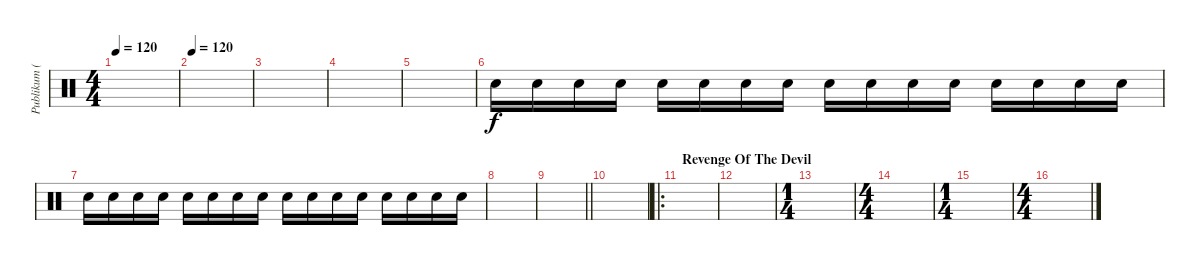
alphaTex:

\track ("Publikum (klapper)" "Publikum (") {instrument percussion}
\staff {score}
\articulation defaults
\ts (4 4)
\tempo 120
\clef neutral
\ks c
|
\tempo 120
|
|
|
|
"Hand Clap (hit)".16 "Hand Clap (hit)".16 "Hand Clap (hit)".16 "Hand Clap (hit)".16 "Hand Clap (hit)".16 "Hand Clap (hit)".16 "Hand Clap (hit)".16 "Hand Clap (hit)".16 "Hand Clap (hit)".16 "Hand Clap (hit)".16 "Hand Clap (hit)".16 "Hand Clap (hit)".16 "Hand Clap (hit)".16 "Hand Clap (hit)".16 "Hand Clap (hit)".16 "Hand Clap (hit)".16 |
"Hand Clap (hit)".16 "Hand Clap (hit)".16 "Hand Clap (hit)".16 "Hand Clap (hit)".16 "Hand Clap (hit)".16 "Hand Clap (hit)".16 "Hand Clap (hit)".16 "Hand Clap (hit)".16 "Hand Clap (hit)".16 "Hand Clap (hit)".16 "Hand Clap (hit)".16 "Hand Clap (hit)".16 "Hand Clap (hit)".16 "Hand Clap (hit)".16 "Hand Clap (hit)".16 "Hand Clap (hit)".16 |
|
\barLineRight lightlight
|
|
\ro
\section ("" "Revenge Of The Devil")
|
|
\ts (1 4)
|
\ts (4 4)
|
\ts (1 4)
|
\ts (4 4)
